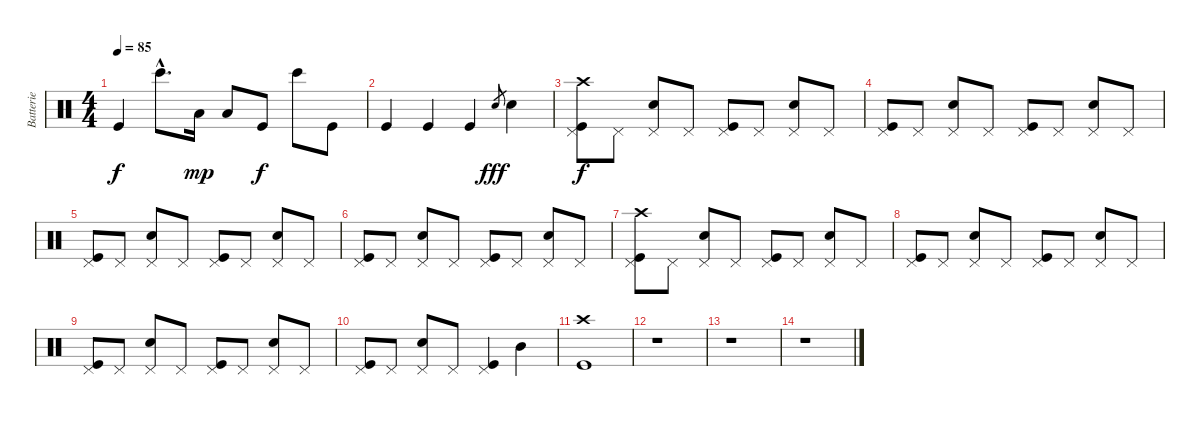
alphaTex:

\track ("Batterie" "Batterie") {instrument percussion}
\staff {score}
\articulation defaults
\ts (4 4)
\tempo 85
\clef neutral
\ks c "Kick (hit)".4{dy f} "Bongo High (hit)"{hac}.8{d} "Low Tom (hit)".16{dy mp} "Low Tom (hit)".8 "Kick (hit)".8{dy f} "Bongo High (hit)".8 "Kick (hit)".8
|
"Kick (hit)".4 "Kick (hit)".4 "Kick (hit)".4 "Electric Snare (hit)".8{gr dy fff} "Electric Snare (hit)".4 |
("Pedal Hi-Hat (hit)" "Kick (hit)" "Crash high (hit)").8{dy f} "Pedal Hi-Hat (hit)".8 ("Pedal Hi-Hat (hit)" "Electric Snare (hit)").8 "Pedal Hi-Hat (hit)".8 ("Pedal Hi-Hat (hit)" "Kick (hit)").8 "Pedal Hi-Hat (hit)".8 ("Pedal Hi-Hat (hit)" "Electric Snare (hit)").8 "Pedal Hi-Hat (hit)".8 |
("Pedal Hi-Hat (hit)" "Kick (hit)").8 "Pedal Hi-Hat (hit)".8 ("Pedal Hi-Hat (hit)" "Electric Snare (hit)").8 "Pedal Hi-Hat (hit)".8 ("Pedal Hi-Hat (hit)" "Kick (hit)").8 "Pedal Hi-Hat (hit)".8 ("Pedal Hi-Hat (hit)" "Electric Snare (hit)").8 "Pedal Hi-Hat (hit)".8 |
("Pedal Hi-Hat (hit)" "Kick (hit)").8 "Pedal Hi-Hat (hit)".8 ("Pedal Hi-Hat (hit)" "Electric Snare (hit)").8 "Pedal Hi-Hat (hit)".8 ("Pedal Hi-Hat (hit)" "Kick (hit)").8 "Pedal Hi-Hat (hit)".8 ("Pedal Hi-Hat (hit)" "Electric Snare (hit)").8 "Pedal Hi-Hat (hit)".8 |
("Pedal Hi-Hat (hit)" "Kick (hit)").8 "Pedal Hi-Hat (hit)".8 ("Pedal Hi-Hat (hit)" "Electric Snare (hit)").8 "Pedal Hi-Hat (hit)".8 ("Pedal Hi-Hat (hit)" "Kick (hit)").8 "Pedal Hi-Hat (hit)".8 ("Pedal Hi-Hat (hit)" "Electric Snare (hit)").8 "Pedal Hi-Hat (hit)".8 |
("Pedal Hi-Hat (hit)" "Kick (hit)" "Crash high (hit)").8 "Pedal Hi-Hat (hit)".8 ("Pedal Hi-Hat (hit)" "Electric Snare (hit)").8 "Pedal Hi-Hat (hit)".8 ("Pedal Hi-Hat (hit)" "Kick (hit)").8 "Pedal Hi-Hat (hit)".8 ("Pedal Hi-Hat (hit)" "Electric Snare (hit)").8 "Pedal Hi-Hat (hit)".8 |
("Pedal Hi-Hat (hit)" "Kick (hit)").8 "Pedal Hi-Hat (hit)".8 ("Pedal Hi-Hat (hit)" "Electric Snare (hit)").8 "Pedal Hi-Hat (hit)".8 ("Pedal Hi-Hat (hit)" "Kick (hit)").8 "Pedal Hi-Hat (hit)".8 ("Pedal Hi-Hat (hit)" "Electric Snare (hit)").8 "Pedal Hi-Hat (hit)".8 |
("Pedal Hi-Hat (hit)" "Kick (hit)").8 "Pedal Hi-Hat (hit)".8 ("Pedal Hi-Hat (hit)" "Electric Snare (hit)").8 "Pedal Hi-Hat (hit)".8 ("Pedal Hi-Hat (hit)" "Kick (hit)").8 "Pedal Hi-Hat (hit)".8 ("Pedal Hi-Hat (hit)" "Electric Snare (hit)").8 "Pedal Hi-Hat (hit)".8 |
("Pedal Hi-Hat (hit)" "Kick (hit)").8 "Pedal Hi-Hat (hit)".8 ("Pedal Hi-Hat (hit)" "Electric Snare (hit)").8 "Pedal Hi-Hat (hit)".8 ("Pedal Hi-Hat (hit)" "Kick (hit)").4 "Mid Tom (hit)".4 |
("Kick (hit)" "Crash high (hit)").1 |
r.1 |
r.1 |
r.1
